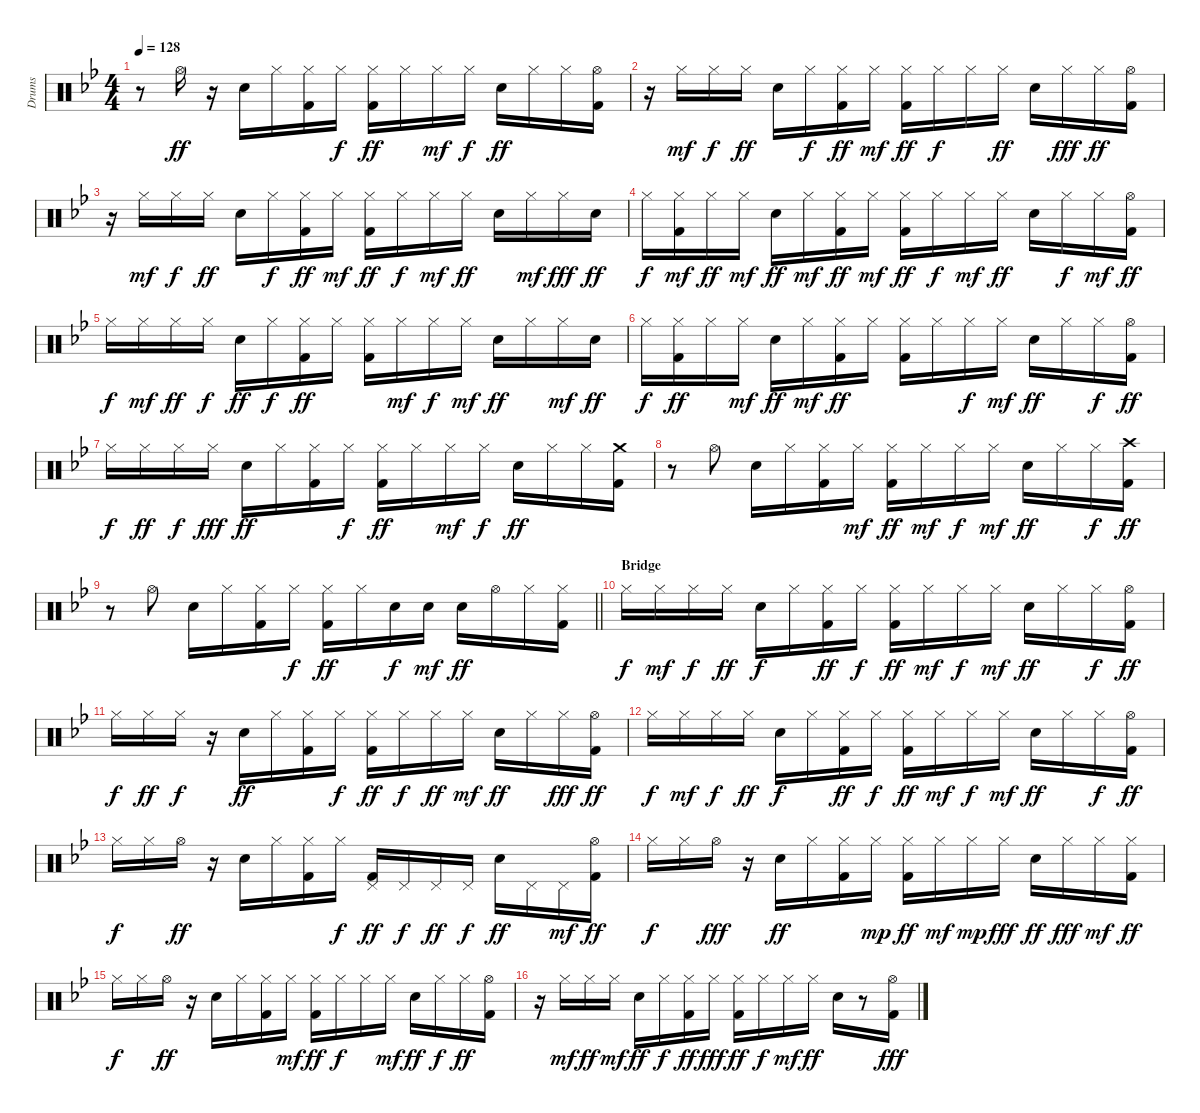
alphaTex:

\track ("Drums" "Drums") {instrument percussion}
\staff {score}
\articulation defaults
\ts (4 4)
\tempo 128
\clef neutral
\ks gminor
r.8{dy ff} "Hi-Hat (open)".16 r.16 "Snare (hit) 2".16 "Hi-Hat (closed)".16 ("Hi-Hat (closed)" "Kick (hit) 2").16 "Hi-Hat (closed)".16{dy f} ("Hi-Hat (closed)" "Kick (hit) 2").16{dy ff} "Hi-Hat (closed)".16 "Hi-Hat (closed)".16{dy mf} "Hi-Hat (closed)".16{dy f} "Snare (hit) 2".16{dy ff} "Hi-Hat (closed)".16 "Hi-Hat (closed)".16 ("Kick (hit) 2" "Hi-Hat (open)").16 |
r.16 "Hi-Hat (closed)".16{dy mf} "Hi-Hat (closed)".16{dy f} "Hi-Hat (closed)".16{dy ff} "Snare (hit) 2".16 "Hi-Hat (closed)".16{dy f} ("Hi-Hat (closed)" "Kick (hit) 2").16{dy ff} "Hi-Hat (closed)".16{dy mf} ("Hi-Hat (closed)" "Kick (hit) 2").16{dy ff} "Hi-Hat (closed)".16{dy f} "Hi-Hat (closed)".16 "Hi-Hat (closed)".16{dy ff} "Snare (hit) 2".16 "Hi-Hat (closed)".16{dy fff} "Hi-Hat (closed)".16{dy ff} ("Hi-Hat (open)" "Kick (hit) 2").16 |
r.16 "Hi-Hat (closed)".16{dy mf} "Hi-Hat (closed)".16{dy f} "Hi-Hat (closed)".16{dy ff} "Snare (hit) 2".16 "Hi-Hat (closed)".16{dy f} ("Hi-Hat (closed)" "Kick (hit) 2").16{dy ff} "Hi-Hat (closed)".16{dy mf} ("Hi-Hat (closed)" "Kick (hit) 2").16{dy ff} "Hi-Hat (closed)".16{dy f} "Hi-Hat (closed)".16{dy mf} "Hi-Hat (closed)".16{dy ff} "Snare (hit) 2".16 "Hi-Hat (closed)".16{dy mf} "Hi-Hat (closed)".16{dy fff} "Snare (hit) 2".16{dy ff} |
"Hi-Hat (closed)".16{dy f} ("Kick (hit) 2" "Hi-Hat (closed)").16{dy mf} "Hi-Hat (closed)".16{dy ff} "Hi-Hat (closed)".16{dy mf} "Snare (hit) 2".16{dy ff} "Hi-Hat (closed)".16{dy mf} ("Kick (hit) 2" "Hi-Hat (closed)").16{dy ff} "Hi-Hat (closed)".16{dy mf} ("Kick (hit) 2" "Hi-Hat (closed)").16{dy ff} "Hi-Hat (closed)".16{dy f} "Hi-Hat (closed)".16{dy mf} "Hi-Hat (closed)".16{dy ff} "Snare (hit) 2".16 "Hi-Hat (closed)".16{dy f} "Hi-Hat (closed)".16{dy mf} ("Kick (hit) 2" "Hi-Hat (open)").16{dy ff} |
"Hi-Hat (closed)".16{dy f} "Hi-Hat (closed)".16{dy mf} "Hi-Hat (closed)".16{dy ff} "Hi-Hat (closed)".16{dy f} "Snare (hit) 2".16{dy ff} "Hi-Hat (closed)".16{dy f} ("Hi-Hat (closed)" "Kick (hit) 2").16{dy ff} "Hi-Hat (closed)".16 ("Hi-Hat (closed)" "Kick (hit) 2").16 "Hi-Hat (closed)".16{dy mf} "Hi-Hat (closed)".16{dy f} "Hi-Hat (closed)".16{dy mf} "Snare (hit) 2".16{dy ff} "Hi-Hat (closed)".16 "Hi-Hat (closed)".16{dy mf} "Snare (hit) 2".16{dy ff} |
"Hi-Hat (closed)".16{dy f} ("Hi-Hat (closed)" "Kick (hit) 2").16{dy ff} "Hi-Hat (closed)".16 "Hi-Hat (closed)".16{dy mf} "Snare (hit) 2".16{dy ff} "Hi-Hat (closed)".16{dy mf} ("Hi-Hat (closed)" "Kick (hit) 2").16{dy ff} "Hi-Hat (closed)".16 ("Hi-Hat (closed)" "Kick (hit) 2").16 "Hi-Hat (closed)".16 "Hi-Hat (closed)".16{dy f} "Hi-Hat (closed)".16{dy mf} "Snare (hit) 2".16{dy ff} "Hi-Hat (closed)".16 "Hi-Hat (closed)".16{dy f} ("Hi-Hat (open)" "Kick (hit) 2").16{dy ff} |
"Hi-Hat (closed)".16{dy f} "Hi-Hat (closed)".16{dy ff} "Hi-Hat (closed)".16{dy f} "Hi-Hat (closed)".16{dy fff} "Snare (hit) 2".16{dy ff} "Hi-Hat (closed)".16 ("Hi-Hat (closed)" "Kick (hit) 2").16 "Hi-Hat (closed)".16{dy f} ("Hi-Hat (closed)" "Kick (hit) 2").16{dy ff} "Hi-Hat (closed)".16 "Hi-Hat (closed)".16{dy mf} "Hi-Hat (closed)".16{dy f} "Snare (hit) 2".16{dy ff} "Hi-Hat (closed)".16 "Hi-Hat (closed)".16 ("Kick (hit) 2" "Crash medium (hit)").16 |
r.8 "Hi-Hat (open)".8 "Snare (hit) 2".16 "Hi-Hat (closed)".16 ("Hi-Hat (closed)" "Kick (hit) 2").16 "Hi-Hat (closed)".16{dy mf} ("Hi-Hat (closed)" "Kick (hit) 2").16{dy ff} "Hi-Hat (closed)".16{dy mf} "Hi-Hat (closed)".16{dy f} "Hi-Hat (closed)".16{dy mf} "Snare (hit) 2".16{dy ff} "Hi-Hat (closed)".16 "Hi-Hat (closed)".16{dy f} ("Kick (hit) 2" "Crash high (hit)").16{dy ff} |
\barLineRight lightlight
r.8 "Hi-Hat (open)".8 "Snare (hit) 2".16 "Hi-Hat (closed)".16 ("Hi-Hat (closed)" "Kick (hit) 2").16 "Hi-Hat (closed)".16{dy f} ("Hi-Hat (closed)" "Kick (hit) 2").16{dy ff} "Hi-Hat (closed)".16 "Snare (hit) 2".16{dy f} "Snare (hit) 2".16{dy mf} "Snare (hit) 2".16{dy ff} "Hi-Hat (open)".16 "Hi-Hat (closed)".16 ("Kick (hit) 2" "Hi-Hat (closed)").16 |
\section ("" "Bridge")
"Hi-Hat (closed)".16{dy f} "Hi-Hat (closed)".16{dy mf} "Hi-Hat (closed)".16{dy f} "Hi-Hat (closed)".16{dy ff} "Snare (hit) 2".16{dy f} "Hi-Hat (closed)".16 ("Hi-Hat (closed)" "Kick (hit) 2").16{dy ff} "Hi-Hat (closed)".16{dy f} ("Hi-Hat (closed)" "Kick (hit) 2").16{dy ff} "Hi-Hat (closed)".16{dy mf} "Hi-Hat (closed)".16{dy f} "Hi-Hat (closed)".16{dy mf} "Snare (hit) 2".16{dy ff} "Hi-Hat (closed)".16 "Hi-Hat (closed)".16{dy f} ("Hi-Hat (open)" "Kick (hit) 2").16{dy ff} |
"Hi-Hat (closed)".16{dy f} "Hi-Hat (closed)".16{dy ff} "Hi-Hat (closed)".16{dy f} r.16 "Snare (hit) 2".16{dy ff} "Hi-Hat (closed)".16 ("Hi-Hat (closed)" "Kick (hit) 2").16 "Hi-Hat (closed)".16{dy f} ("Hi-Hat (closed)" "Kick (hit) 2").16{dy ff} "Hi-Hat (closed)".16{dy f} "Hi-Hat (closed)".16{dy ff} "Hi-Hat (closed)".16{dy mf} "Snare (hit) 2".16{dy ff} "Hi-Hat (closed)".16 "Hi-Hat (closed)".16{dy fff} ("Hi-Hat (open)" "Kick (hit) 2").16{dy ff} |
"Hi-Hat (closed)".16{dy f} "Hi-Hat (closed)".16{dy mf} "Hi-Hat (closed)".16{dy f} "Hi-Hat (closed)".16{dy ff} "Snare (hit) 2".16{dy f} "Hi-Hat (closed)".16 ("Hi-Hat (closed)" "Kick (hit) 2").16{dy ff} "Hi-Hat (closed)".16{dy f} ("Hi-Hat (closed)" "Kick (hit) 2").16{dy ff} "Hi-Hat (closed)".16{dy mf} "Hi-Hat (closed)".16{dy f} "Hi-Hat (closed)".16{dy mf} "Snare (hit) 2".16{dy ff} "Hi-Hat (closed)".16 "Hi-Hat (closed)".16{dy f} ("Hi-Hat (open)" "Kick (hit) 2").16{dy ff} |
"Hi-Hat (closed)".16{dy f} "Hi-Hat (closed)".16 "Hi-Hat (open)".16{dy ff} r.16 "Snare (hit) 2".16 "Hi-Hat (closed)".16 ("Hi-Hat (closed)" "Kick (hit) 2").16 "Hi-Hat (closed)".16{dy f} ("Pedal Hi-Hat (hit)" "Kick (hit) 2").16{dy ff} "Pedal Hi-Hat (hit)".16{dy f} "Pedal Hi-Hat (hit)".16{dy ff} "Pedal Hi-Hat (hit)".16{dy f} "Snare (hit) 2".16{dy ff} "Pedal Hi-Hat (hit)".16 "Pedal Hi-Hat (hit)".16{dy mf} ("Hi-Hat (open)" "Kick (hit) 2").16{dy ff} |
"Hi-Hat (closed)".16{dy f} "Hi-Hat (closed)".16 "Hi-Hat (open)".16{dy fff} r.16 "Snare (hit) 2".16{dy ff} "Hi-Hat (closed)".16 ("Hi-Hat (closed)" "Kick (hit) 2").16 "Hi-Hat (closed)".16{dy mp} ("Hi-Hat (closed)" "Kick (hit) 2").16{dy ff} "Hi-Hat (closed)".16{dy mf} "Hi-Hat (closed)".16{dy mp} "Hi-Hat (closed)".16{dy fff} "Snare (hit) 2".16{dy ff} "Hi-Hat (closed)".16{dy fff} "Hi-Hat (closed)".16{dy mf} ("Hi-Hat (closed)" "Kick (hit) 2").16{dy ff} |
"Hi-Hat (closed)".16{dy f} "Hi-Hat (closed)".16 "Hi-Hat (open)".16{dy ff} r.16 "Snare (hit) 2".16 "Hi-Hat (closed)".16 ("Hi-Hat (closed)" "Kick (hit) 2").16 "Hi-Hat (closed)".16{dy mf} ("Hi-Hat (closed)" "Kick (hit) 2").16{dy ff} "Hi-Hat (closed)".16{dy f} "Hi-Hat (closed)".16 "Hi-Hat (closed)".16{dy mf} "Snare (hit) 2".16{dy ff} "Hi-Hat (closed)".16{dy f} "Hi-Hat (closed)".16{dy ff} ("Hi-Hat (open)" "Kick (hit) 2").16 |
r.16 "Hi-Hat (closed)".16{dy mf} "Hi-Hat (closed)".16{dy ff} "Hi-Hat (closed)".16{dy mf} "Snare (hit) 2".16{dy ff} "Hi-Hat (closed)".16{dy f} ("Hi-Hat (closed)" "Kick (hit) 2").16{dy ff} "Hi-Hat (closed)".16{dy fff} ("Hi-Hat (closed)" "Kick (hit) 2").16{dy ff} "Hi-Hat (closed)".16{dy f} "Hi-Hat (closed)".16{dy mf} "Hi-Hat (closed)".16{dy ff} "Snare (hit) 2".16 r.8 ("Kick (hit) 2" "Hi-Hat (open)").16{dy fff}
